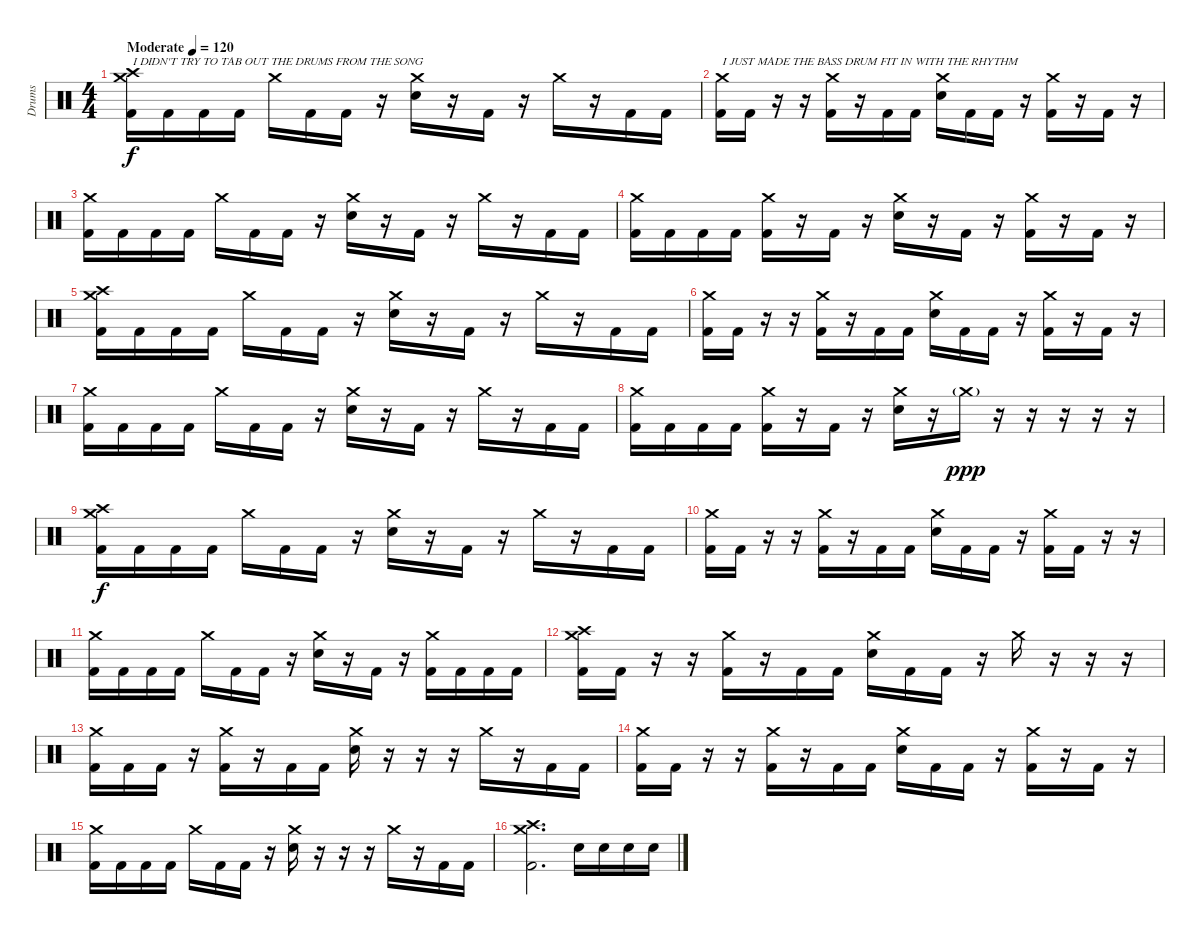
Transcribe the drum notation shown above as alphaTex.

\track ("Drums" "Drums") {instrument percussion}
\staff {score}
\articulation defaults
\ts (4 4)
\tempo (120 "Moderate")
\clef neutral
\ks c
("Crash medium (hit)" "Crash high (hit)" "Kick (hit) 2").16{txt "I DIDN'T TRY TO TAB OUT THE DRUMS FROM THE SONG" dy f} "Kick (hit) 2".16 "Kick (hit) 2".16 "Kick (hit) 2".16 "Crash medium (hit)".16 "Kick (hit) 2".16 "Kick (hit) 2".16 r.16 ("Crash medium (hit)" "Electric Snare (hit)").16 r.16 "Kick (hit) 2".16 r.16 "Crash medium (hit)".16 r.16 "Kick (hit) 2".16 "Kick (hit) 2".16 |
("Crash medium (hit)" "Kick (hit) 2").16{txt "I JUST MADE THE BASS DRUM FIT IN WITH THE RHYTHM"} "Kick (hit) 2".16 r.16 r.16 ("Crash medium (hit)" "Kick (hit) 2").16 r.16 "Kick (hit) 2".16 "Kick (hit) 2".16 ("Crash medium (hit)" "Electric Snare (hit)").16 "Kick (hit) 2".16 "Kick (hit) 2".16 r.16 ("Crash medium (hit)" "Kick (hit) 2").16 r.16 "Kick (hit) 2".16 r.16 |
("Crash medium (hit)" "Kick (hit) 2").16 "Kick (hit) 2".16 "Kick (hit) 2".16 "Kick (hit) 2".16 "Crash medium (hit)".16 "Kick (hit) 2".16 "Kick (hit) 2".16 r.16 ("Crash medium (hit)" "Electric Snare (hit)").16 r.16 "Kick (hit) 2".16 r.16 "Crash medium (hit)".16 r.16 "Kick (hit) 2".16 "Kick (hit) 2".16 |
("Crash medium (hit)" "Kick (hit) 2").16 "Kick (hit) 2".16 "Kick (hit) 2".16 "Kick (hit) 2".16 ("Crash medium (hit)" "Kick (hit) 2").16 r.16 "Kick (hit) 2".16 r.16 ("Crash medium (hit)" "Electric Snare (hit)").16 r.16 "Kick (hit) 2".16 r.16 ("Crash medium (hit)" "Kick (hit) 2").16 r.16 "Kick (hit) 2".16 r.16 |
("Crash medium (hit)" "Crash high (hit)" "Kick (hit) 2").16 "Kick (hit) 2".16 "Kick (hit) 2".16 "Kick (hit) 2".16 "Crash medium (hit)".16 "Kick (hit) 2".16 "Kick (hit) 2".16 r.16 ("Crash medium (hit)" "Electric Snare (hit)").16 r.16 "Kick (hit) 2".16 r.16 "Crash medium (hit)".16 r.16 "Kick (hit) 2".16 "Kick (hit) 2".16 |
("Crash medium (hit)" "Kick (hit) 2").16 "Kick (hit) 2".16 r.16 r.16 ("Crash medium (hit)" "Kick (hit) 2").16 r.16 "Kick (hit) 2".16 "Kick (hit) 2".16 ("Crash medium (hit)" "Electric Snare (hit)").16 "Kick (hit) 2".16 "Kick (hit) 2".16 r.16 ("Crash medium (hit)" "Kick (hit) 2").16 r.16 "Kick (hit) 2".16 r.16 |
("Crash medium (hit)" "Kick (hit) 2").16 "Kick (hit) 2".16 "Kick (hit) 2".16 "Kick (hit) 2".16 "Crash medium (hit)".16 "Kick (hit) 2".16 "Kick (hit) 2".16 r.16 ("Crash medium (hit)" "Electric Snare (hit)").16 r.16 "Kick (hit) 2".16 r.16 "Crash medium (hit)".16 r.16 "Kick (hit) 2".16 "Kick (hit) 2".16 |
("Crash medium (hit)" "Kick (hit) 2").16 "Kick (hit) 2".16 "Kick (hit) 2".16 "Kick (hit) 2".16 ("Crash medium (hit)" "Kick (hit) 2").16 r.16 "Kick (hit) 2".16 r.16 ("Crash medium (hit)" "Electric Snare (hit)").16 r.16 "Crash medium (hit)"{g}.16{dy ppp} r.16 r.16 r.16 r.16 r.16 |
("Crash medium (hit)" "Crash high (hit)" "Kick (hit) 2").16{dy f} "Kick (hit) 2".16 "Kick (hit) 2".16 "Kick (hit) 2".16 "Crash medium (hit)".16 "Kick (hit) 2".16 "Kick (hit) 2".16 r.16 ("Crash medium (hit)" "Electric Snare (hit)").16 r.16 "Kick (hit) 2".16 r.16 "Crash medium (hit)".16 r.16 "Kick (hit) 2".16 "Kick (hit) 2".16 |
("Crash medium (hit)" "Kick (hit) 2").16 "Kick (hit) 2".16 r.16 r.16 ("Crash medium (hit)" "Kick (hit) 2").16 r.16 "Kick (hit) 2".16 "Kick (hit) 2".16 ("Crash medium (hit)" "Electric Snare (hit)").16 "Kick (hit) 2".16 "Kick (hit) 2".16 r.16 ("Crash medium (hit)" "Kick (hit) 2").16 "Kick (hit) 2".16 r.16 r.16 |
("Crash medium (hit)" "Kick (hit) 2").16 "Kick (hit) 2".16 "Kick (hit) 2".16 "Kick (hit) 2".16 "Crash medium (hit)".16 "Kick (hit) 2".16 "Kick (hit) 2".16 r.16 ("Crash medium (hit)" "Electric Snare (hit)").16 r.16 "Kick (hit) 2".16 r.16 ("Crash medium (hit)" "Kick (hit) 2").16 "Kick (hit) 2".16 "Kick (hit) 2".16 "Kick (hit) 2".16 |
("Crash medium (hit)" "Crash high (hit)" "Kick (hit) 2").16 "Kick (hit) 2".16 r.16 r.16 ("Crash medium (hit)" "Kick (hit) 2").16 r.16 "Kick (hit) 2".16 "Kick (hit) 2".16 ("Crash medium (hit)" "Electric Snare (hit)").16 "Kick (hit) 2".16 "Kick (hit) 2".16 r.16 "Crash medium (hit)".16 r.16 r.16 r.16 |
("Crash medium (hit)" "Kick (hit) 2").16 "Kick (hit) 2".16 "Kick (hit) 2".16 r.16 ("Crash medium (hit)" "Kick (hit) 2").16 r.16 "Kick (hit) 2".16 "Kick (hit) 2".16 ("Crash medium (hit)" "Electric Snare (hit)").16 r.16 r.16 r.16 "Crash medium (hit)".16 r.16 "Kick (hit) 2".16 "Kick (hit) 2".16 |
("Crash medium (hit)" "Kick (hit) 2").16 "Kick (hit) 2".16 r.16 r.16 ("Crash medium (hit)" "Kick (hit) 2").16 r.16 "Kick (hit) 2".16 "Kick (hit) 2".16 ("Crash medium (hit)" "Electric Snare (hit)").16 "Kick (hit) 2".16 "Kick (hit) 2".16 r.16 ("Crash medium (hit)" "Kick (hit) 2").16 r.16 "Kick (hit) 2".16 r.16 |
("Crash medium (hit)" "Kick (hit) 2").16 "Kick (hit) 2".16 "Kick (hit) 2".16 "Kick (hit) 2".16 "Crash medium (hit)".16 "Kick (hit) 2".16 "Kick (hit) 2".16 r.16 ("Crash medium (hit)" "Electric Snare (hit)").16 r.16 r.16 r.16 "Crash medium (hit)".16 r.16 "Kick (hit) 2".16 "Kick (hit) 2".16 |
("Crash high (hit)" "Crash medium (hit)" "Kick (hit) 2").2{d} "Electric Snare (hit)".16 "Electric Snare (hit)".16 "Electric Snare (hit)".16 "Electric Snare (hit)".16
